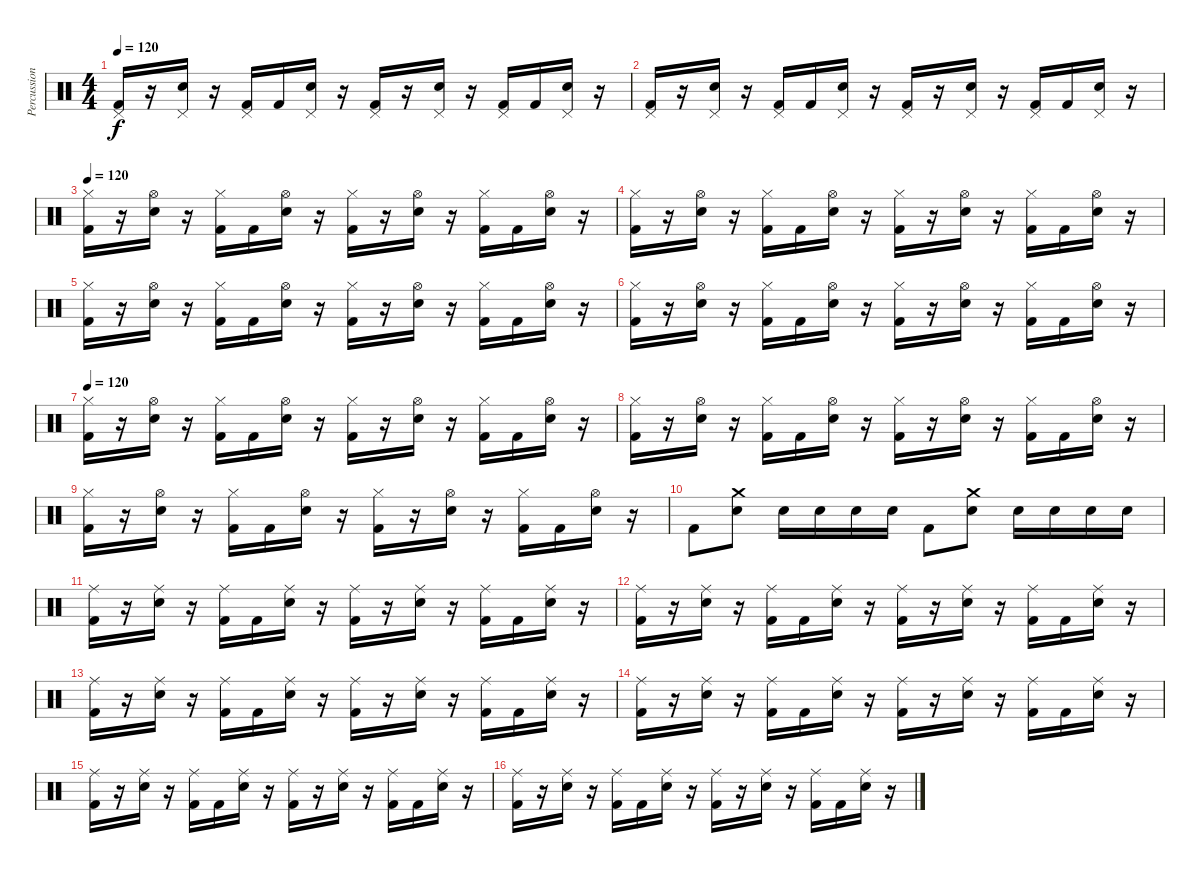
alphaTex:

\track ("Percussion" "Percussion") {instrument percussion}
\staff {score}
\articulation defaults
\ts (4 4)
\tempo 120
\clef neutral
\ks c
("Pedal Hi-Hat (hit)" "Kick (hit) 2").16{dy f} r.16 ("Pedal Hi-Hat (hit)" "Electric Snare (hit)").16 r.16 ("Pedal Hi-Hat (hit)" "Kick (hit) 2").16 "Kick (hit) 2".16 ("Pedal Hi-Hat (hit)" "Electric Snare (hit)").16 r.16 ("Pedal Hi-Hat (hit)" "Kick (hit) 2").16 r.16 ("Pedal Hi-Hat (hit)" "Electric Snare (hit)").16 r.16 ("Pedal Hi-Hat (hit)" "Kick (hit) 2").16 "Kick (hit) 2".16 ("Pedal Hi-Hat (hit)" "Electric Snare (hit)").16 r.16 |
("Pedal Hi-Hat (hit)" "Kick (hit) 2").16 r.16 ("Pedal Hi-Hat (hit)" "Electric Snare (hit)").16 r.16 ("Pedal Hi-Hat (hit)" "Kick (hit) 2").16 "Kick (hit) 2".16 ("Pedal Hi-Hat (hit)" "Electric Snare (hit)").16 r.16 ("Pedal Hi-Hat (hit)" "Kick (hit) 2").16 r.16 ("Pedal Hi-Hat (hit)" "Electric Snare (hit)").16 r.16 ("Pedal Hi-Hat (hit)" "Kick (hit) 2").16 "Kick (hit) 2".16 ("Pedal Hi-Hat (hit)" "Electric Snare (hit)").16 r.16 |
\tempo 120
("Hi-Hat (closed)" "Kick (hit) 2").16 r.16 ("Hi-Hat (open)" "Electric Snare (hit)").16 r.16 ("Hi-Hat (closed)" "Kick (hit) 2").16 "Kick (hit) 2".16 ("Hi-Hat (open)" "Electric Snare (hit)").16 r.16 ("Hi-Hat (closed)" "Kick (hit) 2").16 r.16 ("Hi-Hat (open)" "Electric Snare (hit)").16 r.16 ("Hi-Hat (closed)" "Kick (hit) 2").16 "Kick (hit) 2".16 ("Hi-Hat (open)" "Electric Snare (hit)").16 r.16 |
("Hi-Hat (closed)" "Kick (hit) 2").16 r.16 ("Hi-Hat (open)" "Electric Snare (hit)").16 r.16 ("Hi-Hat (closed)" "Kick (hit) 2").16 "Kick (hit) 2".16 ("Hi-Hat (open)" "Electric Snare (hit)").16 r.16 ("Hi-Hat (closed)" "Kick (hit) 2").16 r.16 ("Hi-Hat (open)" "Electric Snare (hit)").16 r.16 ("Hi-Hat (closed)" "Kick (hit) 2").16 "Kick (hit) 2".16 ("Hi-Hat (open)" "Electric Snare (hit)").16 r.16 |
("Hi-Hat (closed)" "Kick (hit) 2").16 r.16 ("Hi-Hat (open)" "Electric Snare (hit)").16 r.16 ("Hi-Hat (closed)" "Kick (hit) 2").16 "Kick (hit) 2".16 ("Hi-Hat (open)" "Electric Snare (hit)").16 r.16 ("Hi-Hat (closed)" "Kick (hit) 2").16 r.16 ("Hi-Hat (open)" "Electric Snare (hit)").16 r.16 ("Hi-Hat (closed)" "Kick (hit) 2").16 "Kick (hit) 2".16 ("Hi-Hat (open)" "Electric Snare (hit)").16 r.16 |
("Hi-Hat (closed)" "Kick (hit) 2").16 r.16 ("Hi-Hat (open)" "Electric Snare (hit)").16 r.16 ("Hi-Hat (closed)" "Kick (hit) 2").16 "Kick (hit) 2".16 ("Hi-Hat (open)" "Electric Snare (hit)").16 r.16 ("Hi-Hat (closed)" "Kick (hit) 2").16 r.16 ("Hi-Hat (open)" "Electric Snare (hit)").16 r.16 ("Hi-Hat (closed)" "Kick (hit) 2").16 "Kick (hit) 2".16 ("Hi-Hat (open)" "Electric Snare (hit)").16 r.16 |
\tempo 120
("Hi-Hat (closed)" "Kick (hit) 2").16 r.16 ("Hi-Hat (open)" "Electric Snare (hit)").16 r.16 ("Hi-Hat (closed)" "Kick (hit) 2").16 "Kick (hit) 2".16 ("Hi-Hat (open)" "Electric Snare (hit)").16 r.16 ("Hi-Hat (closed)" "Kick (hit) 2").16 r.16 ("Hi-Hat (open)" "Electric Snare (hit)").16 r.16 ("Hi-Hat (closed)" "Kick (hit) 2").16 "Kick (hit) 2".16 ("Hi-Hat (open)" "Electric Snare (hit)").16 r.16 |
("Hi-Hat (closed)" "Kick (hit) 2").16 r.16 ("Hi-Hat (open)" "Electric Snare (hit)").16 r.16 ("Hi-Hat (closed)" "Kick (hit) 2").16 "Kick (hit) 2".16 ("Hi-Hat (open)" "Electric Snare (hit)").16 r.16 ("Hi-Hat (closed)" "Kick (hit) 2").16 r.16 ("Hi-Hat (open)" "Electric Snare (hit)").16 r.16 ("Hi-Hat (closed)" "Kick (hit) 2").16 "Kick (hit) 2".16 ("Hi-Hat (open)" "Electric Snare (hit)").16 r.16 |
("Hi-Hat (closed)" "Kick (hit) 2").16 r.16 ("Hi-Hat (open)" "Electric Snare (hit)").16 r.16 ("Hi-Hat (closed)" "Kick (hit) 2").16 "Kick (hit) 2".16 ("Hi-Hat (open)" "Electric Snare (hit)").16 r.16 ("Hi-Hat (closed)" "Kick (hit) 2").16 r.16 ("Hi-Hat (open)" "Electric Snare (hit)").16 r.16 ("Hi-Hat (closed)" "Kick (hit) 2").16 "Kick (hit) 2".16 ("Hi-Hat (open)" "Electric Snare (hit)").16 r.16 |
"Kick (hit) 2".8 ("Crash medium (hit)" "Electric Snare (hit)").8 "Electric Snare (hit)".16 "Electric Snare (hit)".16 "Electric Snare (hit)".16 "Electric Snare (hit)".16 "Kick (hit) 2".8 ("Crash medium (hit)" "Electric Snare (hit)").8 "Electric Snare (hit)".16 "Electric Snare (hit)".16 "Electric Snare (hit)".16 "Electric Snare (hit)".16 |
("Ride (middle)" "Kick (hit) 2").16 r.16 ("Ride (middle)" "Electric Snare (hit)").16 r.16 ("Ride (middle)" "Kick (hit) 2").16 "Kick (hit) 2".16 ("Ride (middle)" "Electric Snare (hit)").16 r.16 ("Ride (middle)" "Kick (hit) 2").16 r.16 ("Ride (middle)" "Electric Snare (hit)").16 r.16 ("Ride (middle)" "Kick (hit) 2").16 "Kick (hit) 2".16 ("Ride (middle)" "Electric Snare (hit)").16 r.16 |
("Ride (middle)" "Kick (hit) 2").16 r.16 ("Ride (middle)" "Electric Snare (hit)").16 r.16 ("Ride (middle)" "Kick (hit) 2").16 "Kick (hit) 2".16 ("Ride (middle)" "Electric Snare (hit)").16 r.16 ("Ride (middle)" "Kick (hit) 2").16 r.16 ("Ride (middle)" "Electric Snare (hit)").16 r.16 ("Ride (middle)" "Kick (hit) 2").16 "Kick (hit) 2".16 ("Ride (middle)" "Electric Snare (hit)").16 r.16 |
("Ride (middle)" "Kick (hit) 2").16 r.16 ("Ride (middle)" "Electric Snare (hit)").16 r.16 ("Ride (middle)" "Kick (hit) 2").16 "Kick (hit) 2".16 ("Ride (middle)" "Electric Snare (hit)").16 r.16 ("Ride (middle)" "Kick (hit) 2").16 r.16 ("Ride (middle)" "Electric Snare (hit)").16 r.16 ("Ride (middle)" "Kick (hit) 2").16 "Kick (hit) 2".16 ("Ride (middle)" "Electric Snare (hit)").16 r.16 |
("Ride (middle)" "Kick (hit) 2").16 r.16 ("Ride (middle)" "Electric Snare (hit)").16 r.16 ("Ride (middle)" "Kick (hit) 2").16 "Kick (hit) 2".16 ("Ride (middle)" "Electric Snare (hit)").16 r.16 ("Ride (middle)" "Kick (hit) 2").16 r.16 ("Ride (middle)" "Electric Snare (hit)").16 r.16 ("Ride (middle)" "Kick (hit) 2").16 "Kick (hit) 2".16 ("Ride (middle)" "Electric Snare (hit)").16 r.16 |
("Ride (middle)" "Kick (hit) 2").16 r.16 ("Ride (middle)" "Electric Snare (hit)").16 r.16 ("Ride (middle)" "Kick (hit) 2").16 "Kick (hit) 2".16 ("Ride (middle)" "Electric Snare (hit)").16 r.16 ("Ride (middle)" "Kick (hit) 2").16 r.16 ("Ride (middle)" "Electric Snare (hit)").16 r.16 ("Ride (middle)" "Kick (hit) 2").16 "Kick (hit) 2".16 ("Ride (middle)" "Electric Snare (hit)").16 r.16 |
("Ride (middle)" "Kick (hit) 2").16 r.16 ("Ride (middle)" "Electric Snare (hit)").16 r.16 ("Ride (middle)" "Kick (hit) 2").16 "Kick (hit) 2".16 ("Ride (middle)" "Electric Snare (hit)").16 r.16 ("Ride (middle)" "Kick (hit) 2").16 r.16 ("Ride (middle)" "Electric Snare (hit)").16 r.16 ("Ride (middle)" "Kick (hit) 2").16 "Kick (hit) 2".16 ("Ride (middle)" "Electric Snare (hit)").16 r.16
